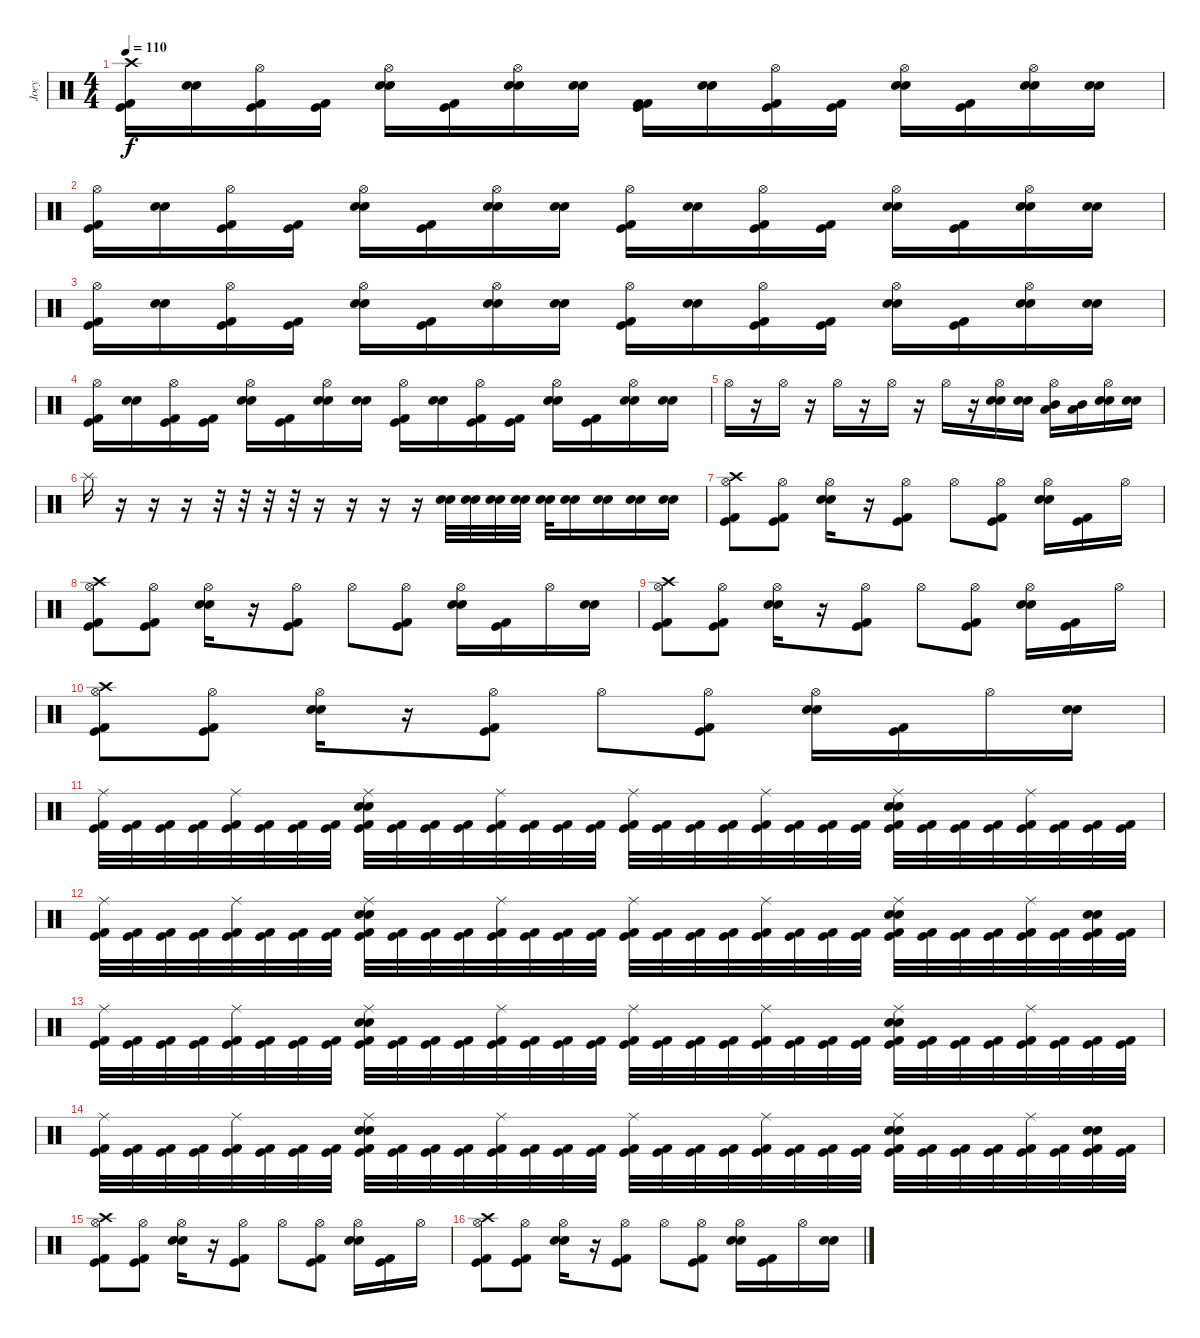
\track ("Joey" "Joey") {instrument percussion}
\staff {score}
\articulation defaults
\ts (4 4)
\tempo 110
\clef neutral
\ks c
("Crash high (hit)" "Kick (hit)" "Kick (hit) 2").16{dy f} ("Snare (hit) 2" "Electric Snare (hit)").16 ("Hi-Hat (open)" "Kick (hit)" "Kick (hit) 2").16 ("Kick (hit)" "Kick (hit) 2").16 ("Hi-Hat (open)" "Snare (hit) 2" "Electric Snare (hit)").16 ("Kick (hit)" "Kick (hit) 2").16 ("Hi-Hat (open)" "Snare (hit) 2" "Electric Snare (hit)").16 ("Snare (hit) 2" "Electric Snare (hit)").16 ("Kick (hit) 2" "Kick (hit)" "Kick (hit) 2").16 ("Snare (hit) 2" "Electric Snare (hit)").16 ("Hi-Hat (open)" "Kick (hit)" "Kick (hit) 2").16 ("Kick (hit)" "Kick (hit) 2").16 ("Hi-Hat (open)" "Snare (hit) 2" "Electric Snare (hit)").16 ("Kick (hit)" "Kick (hit) 2").16 ("Hi-Hat (open)" "Snare (hit) 2" "Electric Snare (hit)").16 ("Snare (hit) 2" "Electric Snare (hit)").16 |
("Hi-Hat (open)" "Kick (hit)" "Kick (hit) 2").16 ("Snare (hit) 2" "Electric Snare (hit)").16 ("Hi-Hat (open)" "Kick (hit)" "Kick (hit) 2").16 ("Kick (hit)" "Kick (hit) 2").16 ("Hi-Hat (open)" "Snare (hit) 2" "Electric Snare (hit)").16 ("Kick (hit)" "Kick (hit) 2").16 ("Hi-Hat (open)" "Snare (hit) 2" "Electric Snare (hit)").16 ("Snare (hit) 2" "Electric Snare (hit)").16 ("Hi-Hat (open)" "Kick (hit)" "Kick (hit) 2").16 ("Snare (hit) 2" "Electric Snare (hit)").16 ("Hi-Hat (open)" "Kick (hit)" "Kick (hit) 2").16 ("Kick (hit)" "Kick (hit) 2").16 ("Hi-Hat (open)" "Snare (hit) 2" "Electric Snare (hit)").16 ("Kick (hit)" "Kick (hit) 2").16 ("Hi-Hat (open)" "Snare (hit) 2" "Electric Snare (hit)").16 ("Snare (hit) 2" "Electric Snare (hit)").16 |
("Hi-Hat (open)" "Kick (hit)" "Kick (hit) 2").16 ("Snare (hit) 2" "Electric Snare (hit)").16 ("Hi-Hat (open)" "Kick (hit)" "Kick (hit) 2").16 ("Kick (hit)" "Kick (hit) 2").16 ("Hi-Hat (open)" "Snare (hit) 2" "Electric Snare (hit)").16 ("Kick (hit)" "Kick (hit) 2").16 ("Hi-Hat (open)" "Snare (hit) 2" "Electric Snare (hit)").16 ("Snare (hit) 2" "Electric Snare (hit)").16 ("Hi-Hat (open)" "Kick (hit)" "Kick (hit) 2").16 ("Snare (hit) 2" "Electric Snare (hit)").16 ("Hi-Hat (open)" "Kick (hit)" "Kick (hit) 2").16 ("Kick (hit)" "Kick (hit) 2").16 ("Hi-Hat (open)" "Snare (hit) 2" "Electric Snare (hit)").16 ("Kick (hit)" "Kick (hit) 2").16 ("Hi-Hat (open)" "Snare (hit) 2" "Electric Snare (hit)").16 ("Snare (hit) 2" "Electric Snare (hit)").16 |
("Hi-Hat (open)" "Kick (hit)" "Kick (hit) 2").16 ("Snare (hit) 2" "Electric Snare (hit)").16 ("Hi-Hat (open)" "Kick (hit)" "Kick (hit) 2").16 ("Kick (hit)" "Kick (hit) 2").16 ("Hi-Hat (open)" "Snare (hit) 2" "Electric Snare (hit)").16 ("Kick (hit)" "Kick (hit) 2").16 ("Hi-Hat (open)" "Snare (hit) 2" "Electric Snare (hit)").16 ("Snare (hit) 2" "Electric Snare (hit)").16 ("Hi-Hat (open)" "Kick (hit)" "Kick (hit) 2").16 ("Snare (hit) 2" "Electric Snare (hit)").16 ("Hi-Hat (open)" "Kick (hit)" "Kick (hit) 2").16 ("Kick (hit)" "Kick (hit) 2").16 ("Hi-Hat (open)" "Snare (hit) 2" "Electric Snare (hit)").16 ("Kick (hit)" "Kick (hit) 2").16 ("Hi-Hat (open)" "Snare (hit) 2" "Electric Snare (hit)").16 ("Snare (hit) 2" "Electric Snare (hit)").16 |
"Hi-Hat (open)".16 r.16 "Hi-Hat (open)".16 r.16 "Hi-Hat (open)".16 r.16 "Hi-Hat (open)".16 r.16 "Hi-Hat (open)".16 r.16 ("Hi-Hat (open)" "Electric Snare (hit)" "Snare (hit) 2").16 ("Electric Snare (hit)" "Snare (hit) 2").16 ("Hi-Hat (open)" "Mid Tom (hit)" "Low Tom (hit)").16 ("Mid Tom (hit)" "Low Tom (hit)").16 ("Hi-Hat (open)" "Electric Snare (hit)" "Snare (hit) 2").16 ("Electric Snare (hit)" "Snare (hit) 2").16 |
"Splash (hit)".16 r.16 r.16 r.16 r.32 r.32 r.32 r.32 r.16 r.16 r.16 r.16 ("Snare (hit) 2" "Electric Snare (hit)").32 ("Snare (hit) 2" "Electric Snare (hit)").32 ("Snare (hit) 2" "Electric Snare (hit)").32 ("Snare (hit) 2" "Electric Snare (hit)").32 ("Snare (hit) 2" "Electric Snare (hit)").32 ("Snare (hit) 2" "Electric Snare (hit)").16 ("Snare (hit) 2" "Electric Snare (hit)").16 ("Snare (hit) 2" "Electric Snare (hit)").16 ("Snare (hit) 2" "Electric Snare (hit)").16 |
("Crash high (hit)" "Hi-Hat (open)" "Kick (hit)" "Kick (hit) 2").8 ("Hi-Hat (open)" "Kick (hit)" "Kick (hit) 2").8 ("Hi-Hat (open)" "Snare (hit) 2" "Electric Snare (hit)").16 r.16 ("Hi-Hat (open)" "Kick (hit)" "Kick (hit) 2").8 "Hi-Hat (open)".8 ("Hi-Hat (open)" "Kick (hit)" "Kick (hit) 2").8 ("Hi-Hat (open)" "Snare (hit) 2" "Electric Snare (hit)").16 ("Kick (hit)" "Kick (hit) 2").16 "Hi-Hat (open)".16 |
("Crash high (hit)" "Hi-Hat (open)" "Kick (hit)" "Kick (hit) 2").8 ("Hi-Hat (open)" "Kick (hit)" "Kick (hit) 2").8 ("Hi-Hat (open)" "Snare (hit) 2" "Electric Snare (hit)").16 r.16 ("Hi-Hat (open)" "Kick (hit)" "Kick (hit) 2").8 "Hi-Hat (open)".8 ("Hi-Hat (open)" "Kick (hit)" "Kick (hit) 2").8 ("Hi-Hat (open)" "Snare (hit) 2" "Electric Snare (hit)").16 ("Kick (hit)" "Kick (hit) 2").16 "Hi-Hat (open)".16 ("Snare (hit) 2" "Electric Snare (hit)").16 |
("Crash high (hit)" "Hi-Hat (open)" "Kick (hit)" "Kick (hit) 2").8 ("Hi-Hat (open)" "Kick (hit)" "Kick (hit) 2").8 ("Hi-Hat (open)" "Snare (hit) 2" "Electric Snare (hit)").16 r.16 ("Hi-Hat (open)" "Kick (hit)" "Kick (hit) 2").8 "Hi-Hat (open)".8 ("Hi-Hat (open)" "Kick (hit)" "Kick (hit) 2").8 ("Hi-Hat (open)" "Snare (hit) 2" "Electric Snare (hit)").16 ("Kick (hit)" "Kick (hit) 2").16 "Hi-Hat (open)".16 |
("Crash high (hit)" "Hi-Hat (open)" "Kick (hit)" "Kick (hit) 2").8 ("Hi-Hat (open)" "Kick (hit)" "Kick (hit) 2").8 ("Hi-Hat (open)" "Snare (hit) 2" "Electric Snare (hit)").16 r.16 ("Hi-Hat (open)" "Kick (hit)" "Kick (hit) 2").8 "Hi-Hat (open)".8 ("Hi-Hat (open)" "Kick (hit)" "Kick (hit) 2").8 ("Hi-Hat (open)" "Snare (hit) 2" "Electric Snare (hit)").16 ("Kick (hit)" "Kick (hit) 2").16 "Hi-Hat (open)".16 ("Snare (hit) 2" "Electric Snare (hit)").16 |
("Ride (middle)" "Kick (hit)" "Kick (hit) 2").32 ("Kick (hit)" "Kick (hit) 2").32 ("Kick (hit)" "Kick (hit) 2").32 ("Kick (hit)" "Kick (hit) 2").32 ("Ride (middle)" "Kick (hit)" "Kick (hit) 2").32 ("Kick (hit)" "Kick (hit) 2").32 ("Kick (hit)" "Kick (hit) 2").32 ("Kick (hit)" "Kick (hit) 2").32 ("Ride (middle)" "Electric Snare (hit)" "Snare (hit) 2" "Kick (hit)" "Kick (hit) 2").32 ("Kick (hit)" "Kick (hit) 2").32 ("Kick (hit)" "Kick (hit) 2").32 ("Kick (hit)" "Kick (hit) 2").32 ("Ride (middle)" "Kick (hit)" "Kick (hit) 2").32 ("Kick (hit)" "Kick (hit) 2").32 ("Kick (hit)" "Kick (hit) 2").32 ("Kick (hit)" "Kick (hit) 2").32 ("Ride (middle)" "Kick (hit)" "Kick (hit) 2").32 ("Kick (hit)" "Kick (hit) 2").32 ("Kick (hit)" "Kick (hit) 2").32 ("Kick (hit)" "Kick (hit) 2").32 ("Ride (middle)" "Kick (hit)" "Kick (hit) 2").32 ("Kick (hit)" "Kick (hit) 2").32 ("Kick (hit)" "Kick (hit) 2").32 ("Kick (hit)" "Kick (hit) 2").32 ("Ride (middle)" "Electric Snare (hit)" "Snare (hit) 2" "Kick (hit)" "Kick (hit) 2").32 ("Kick (hit)" "Kick (hit) 2").32 ("Kick (hit)" "Kick (hit) 2").32 ("Kick (hit)" "Kick (hit) 2").32 ("Ride (middle)" "Kick (hit)" "Kick (hit) 2").32 ("Kick (hit)" "Kick (hit) 2").32 ("Kick (hit)" "Kick (hit) 2").32 ("Kick (hit)" "Kick (hit) 2").32 |
("Ride (middle)" "Kick (hit)" "Kick (hit) 2").32 ("Kick (hit)" "Kick (hit) 2").32 ("Kick (hit)" "Kick (hit) 2").32 ("Kick (hit)" "Kick (hit) 2").32 ("Ride (middle)" "Kick (hit)" "Kick (hit) 2").32 ("Kick (hit)" "Kick (hit) 2").32 ("Kick (hit)" "Kick (hit) 2").32 ("Kick (hit)" "Kick (hit) 2").32 ("Ride (middle)" "Electric Snare (hit)" "Snare (hit) 2" "Kick (hit)" "Kick (hit) 2").32 ("Kick (hit)" "Kick (hit) 2").32 ("Kick (hit)" "Kick (hit) 2").32 ("Kick (hit)" "Kick (hit) 2").32 ("Ride (middle)" "Kick (hit)" "Kick (hit) 2").32 ("Kick (hit)" "Kick (hit) 2").32 ("Kick (hit)" "Kick (hit) 2").32 ("Kick (hit)" "Kick (hit) 2").32 ("Ride (middle)" "Kick (hit)" "Kick (hit) 2").32 ("Kick (hit)" "Kick (hit) 2").32 ("Kick (hit)" "Kick (hit) 2").32 ("Kick (hit)" "Kick (hit) 2").32 ("Ride (middle)" "Kick (hit)" "Kick (hit) 2").32 ("Kick (hit)" "Kick (hit) 2").32 ("Kick (hit)" "Kick (hit) 2").32 ("Kick (hit)" "Kick (hit) 2").32 ("Ride (middle)" "Electric Snare (hit)" "Snare (hit) 2" "Kick (hit)" "Kick (hit) 2").32 ("Kick (hit)" "Kick (hit) 2").32 ("Kick (hit)" "Kick (hit) 2").32 ("Kick (hit)" "Kick (hit) 2").32 ("Ride (middle)" "Kick (hit)" "Kick (hit) 2").32 ("Kick (hit)" "Kick (hit) 2").32 ("Electric Snare (hit)" "Snare (hit) 2" "Kick (hit)" "Kick (hit) 2").32 ("Kick (hit)" "Kick (hit) 2").32 |
("Ride (middle)" "Kick (hit)" "Kick (hit) 2").32 ("Kick (hit)" "Kick (hit) 2").32 ("Kick (hit)" "Kick (hit) 2").32 ("Kick (hit)" "Kick (hit) 2").32 ("Ride (middle)" "Kick (hit)" "Kick (hit) 2").32 ("Kick (hit)" "Kick (hit) 2").32 ("Kick (hit)" "Kick (hit) 2").32 ("Kick (hit)" "Kick (hit) 2").32 ("Ride (middle)" "Electric Snare (hit)" "Snare (hit) 2" "Kick (hit)" "Kick (hit) 2").32 ("Kick (hit)" "Kick (hit) 2").32 ("Kick (hit)" "Kick (hit) 2").32 ("Kick (hit)" "Kick (hit) 2").32 ("Ride (middle)" "Kick (hit)" "Kick (hit) 2").32 ("Kick (hit)" "Kick (hit) 2").32 ("Kick (hit)" "Kick (hit) 2").32 ("Kick (hit)" "Kick (hit) 2").32 ("Ride (middle)" "Kick (hit)" "Kick (hit) 2").32 ("Kick (hit)" "Kick (hit) 2").32 ("Kick (hit)" "Kick (hit) 2").32 ("Kick (hit)" "Kick (hit) 2").32 ("Ride (middle)" "Kick (hit)" "Kick (hit) 2").32 ("Kick (hit)" "Kick (hit) 2").32 ("Kick (hit)" "Kick (hit) 2").32 ("Kick (hit)" "Kick (hit) 2").32 ("Ride (middle)" "Electric Snare (hit)" "Snare (hit) 2" "Kick (hit)" "Kick (hit) 2").32 ("Kick (hit)" "Kick (hit) 2").32 ("Kick (hit)" "Kick (hit) 2").32 ("Kick (hit)" "Kick (hit) 2").32 ("Ride (middle)" "Kick (hit)" "Kick (hit) 2").32 ("Kick (hit)" "Kick (hit) 2").32 ("Kick (hit)" "Kick (hit) 2").32 ("Kick (hit)" "Kick (hit) 2").32 |
("Ride (middle)" "Kick (hit)" "Kick (hit) 2").32 ("Kick (hit)" "Kick (hit) 2").32 ("Kick (hit)" "Kick (hit) 2").32 ("Kick (hit)" "Kick (hit) 2").32 ("Ride (middle)" "Kick (hit)" "Kick (hit) 2").32 ("Kick (hit)" "Kick (hit) 2").32 ("Kick (hit)" "Kick (hit) 2").32 ("Kick (hit)" "Kick (hit) 2").32 ("Ride (middle)" "Electric Snare (hit)" "Snare (hit) 2" "Kick (hit)" "Kick (hit) 2").32 ("Kick (hit)" "Kick (hit) 2").32 ("Kick (hit)" "Kick (hit) 2").32 ("Kick (hit)" "Kick (hit) 2").32 ("Ride (middle)" "Kick (hit)" "Kick (hit) 2").32 ("Kick (hit)" "Kick (hit) 2").32 ("Kick (hit)" "Kick (hit) 2").32 ("Kick (hit)" "Kick (hit) 2").32 ("Ride (middle)" "Kick (hit)" "Kick (hit) 2").32 ("Kick (hit)" "Kick (hit) 2").32 ("Kick (hit)" "Kick (hit) 2").32 ("Kick (hit)" "Kick (hit) 2").32 ("Ride (middle)" "Kick (hit)" "Kick (hit) 2").32 ("Kick (hit)" "Kick (hit) 2").32 ("Kick (hit)" "Kick (hit) 2").32 ("Kick (hit)" "Kick (hit) 2").32 ("Ride (middle)" "Electric Snare (hit)" "Snare (hit) 2" "Kick (hit)" "Kick (hit) 2").32 ("Kick (hit)" "Kick (hit) 2").32 ("Kick (hit)" "Kick (hit) 2").32 ("Kick (hit)" "Kick (hit) 2").32 ("Ride (middle)" "Kick (hit)" "Kick (hit) 2").32 ("Kick (hit)" "Kick (hit) 2").32 ("Electric Snare (hit)" "Snare (hit) 2" "Kick (hit)" "Kick (hit) 2").32 ("Kick (hit)" "Kick (hit) 2").32 |
("Crash high (hit)" "Hi-Hat (open)" "Kick (hit)" "Kick (hit) 2").8 ("Hi-Hat (open)" "Kick (hit)" "Kick (hit) 2").8 ("Hi-Hat (open)" "Snare (hit) 2" "Electric Snare (hit)").16 r.16 ("Hi-Hat (open)" "Kick (hit)" "Kick (hit) 2").8 "Hi-Hat (open)".8 ("Hi-Hat (open)" "Kick (hit)" "Kick (hit) 2").8 ("Hi-Hat (open)" "Snare (hit) 2" "Electric Snare (hit)").16 ("Kick (hit)" "Kick (hit) 2").16 "Hi-Hat (open)".16 |
("Crash high (hit)" "Hi-Hat (open)" "Kick (hit)" "Kick (hit) 2").8 ("Hi-Hat (open)" "Kick (hit)" "Kick (hit) 2").8 ("Hi-Hat (open)" "Snare (hit) 2" "Electric Snare (hit)").16 r.16 ("Hi-Hat (open)" "Kick (hit)" "Kick (hit) 2").8 "Hi-Hat (open)".8 ("Hi-Hat (open)" "Kick (hit)" "Kick (hit) 2").8 ("Hi-Hat (open)" "Snare (hit) 2" "Electric Snare (hit)").16 ("Kick (hit)" "Kick (hit) 2").16 "Hi-Hat (open)".16 ("Snare (hit) 2" "Electric Snare (hit)").16
